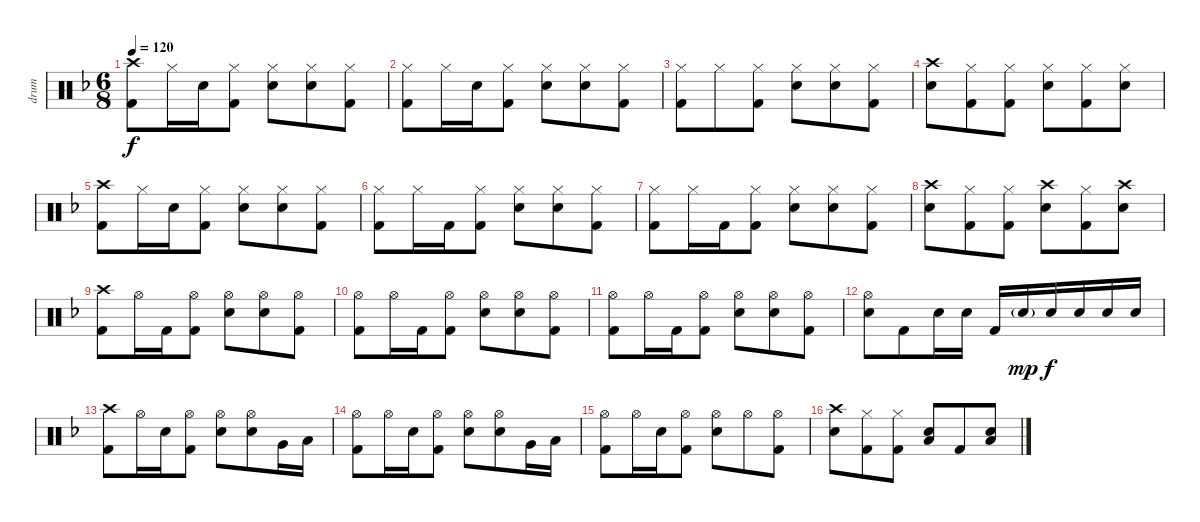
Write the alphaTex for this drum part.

\track ("drum" "drum") {instrument percussion}
\staff {score}
\articulation defaults
\ts (6 8)
\tempo 120
\clef neutral
\ks f
("Crash high (hit)" "Kick (hit) 2").8{dy f} "Hi-Hat (closed)".16 "Snare (hit) 2".16 ("Hi-Hat (closed)" "Kick (hit) 2").8 ("Hi-Hat (closed)" "Snare (hit) 2").8 ("Hi-Hat (closed)" "Snare (hit) 2").8 ("Hi-Hat (closed)" "Kick (hit) 2").8 |
("Hi-Hat (closed)" "Kick (hit) 2").8 "Hi-Hat (closed)".16 "Snare (hit) 2".16 ("Hi-Hat (closed)" "Kick (hit) 2").8 ("Hi-Hat (closed)" "Snare (hit) 2").8 ("Hi-Hat (closed)" "Snare (hit) 2").8 ("Hi-Hat (closed)" "Kick (hit) 2").8 |
("Hi-Hat (closed)" "Kick (hit) 2").8 "Hi-Hat (closed)".8 ("Hi-Hat (closed)" "Kick (hit) 2").8 ("Hi-Hat (closed)" "Snare (hit) 2").8 ("Hi-Hat (closed)" "Snare (hit) 2").8 ("Hi-Hat (closed)" "Kick (hit) 2").8 |
("Crash high (hit)" "Snare (hit) 2").8 ("Hi-Hat (closed)" "Kick (hit) 2").8 ("Hi-Hat (closed)" "Kick (hit) 2").8 ("Hi-Hat (closed)" "Snare (hit) 2").8 ("Hi-Hat (closed)" "Kick (hit) 2").8 ("Hi-Hat (closed)" "Snare (hit) 2").8 |
("Crash high (hit)" "Kick (hit) 2").8 "Hi-Hat (closed)".16 "Snare (hit) 2".16 ("Hi-Hat (closed)" "Kick (hit) 2").8 ("Hi-Hat (closed)" "Snare (hit) 2").8 ("Hi-Hat (closed)" "Snare (hit) 2").8 ("Hi-Hat (closed)" "Kick (hit) 2").8 |
("Hi-Hat (closed)" "Kick (hit) 2").8 "Hi-Hat (closed)".16 "Kick (hit) 2".16 ("Hi-Hat (closed)" "Kick (hit) 2").8 ("Hi-Hat (closed)" "Snare (hit) 2").8 ("Hi-Hat (closed)" "Snare (hit) 2").8 ("Hi-Hat (closed)" "Kick (hit) 2").8 |
("Hi-Hat (closed)" "Kick (hit) 2").8 "Hi-Hat (closed)".16 "Kick (hit) 2".16 ("Hi-Hat (closed)" "Kick (hit) 2").8 ("Hi-Hat (closed)" "Snare (hit) 2").8 ("Hi-Hat (closed)" "Snare (hit) 2").8 ("Hi-Hat (closed)" "Kick (hit) 2").8 |
("Crash high (hit)" "Snare (hit) 2").8 ("Hi-Hat (closed)" "Kick (hit) 2").8 ("Hi-Hat (closed)" "Kick (hit) 2").8 ("Crash high (hit)" "Snare (hit) 2").8 ("Hi-Hat (closed)" "Kick (hit) 2").8 ("Crash high (hit)" "Snare (hit) 2").8 |
("Crash high (hit)" "Kick (hit) 2").8 "Hi-Hat (open)".16 "Kick (hit) 2".16 ("Hi-Hat (open)" "Kick (hit) 2").8 ("Hi-Hat (open)" "Snare (hit) 2").8 ("Hi-Hat (open)" "Snare (hit) 2").8 ("Hi-Hat (open)" "Kick (hit) 2").8 |
("Hi-Hat (open)" "Kick (hit) 2").8 "Hi-Hat (open)".16 "Kick (hit) 2".16 ("Hi-Hat (open)" "Kick (hit) 2").8 ("Hi-Hat (open)" "Snare (hit) 2").8 ("Hi-Hat (open)" "Snare (hit) 2").8 ("Hi-Hat (open)" "Kick (hit) 2").8 |
("Hi-Hat (open)" "Kick (hit) 2").8 "Hi-Hat (open)".16 "Kick (hit) 2".16 ("Hi-Hat (open)" "Kick (hit) 2").8 ("Hi-Hat (open)" "Snare (hit) 2").8 ("Hi-Hat (open)" "Snare (hit) 2").8 ("Hi-Hat (open)" "Kick (hit) 2").8 |
("Hi-Hat (open)" "Snare (hit) 2").8 "Kick (hit) 2".8 "Snare (hit) 2".16 "Snare (hit) 2".16 "Kick (hit) 2".16 "Snare (hit) 2"{g}.16{dy mp} "Snare (hit) 2".16{dy f} "Snare (hit) 2".16 "Snare (hit) 2".16 "Snare (hit) 2".16 |
("Crash high (hit)" "Kick (hit) 2").8 "Hi-Hat (open)".16 "Snare (hit) 2".16 ("Hi-Hat (open)" "Kick (hit) 2").8 ("Hi-Hat (open)" "Snare (hit) 2").8 ("Hi-Hat (open)" "Snare (hit) 2").8 "Very Low Tom (hit)".16 "Low Floor Tom (hit)".16 |
("Hi-Hat (open)" "Kick (hit) 2").8 "Hi-Hat (open)".16 "Snare (hit) 2".16 ("Hi-Hat (open)" "Kick (hit) 2").8 ("Hi-Hat (open)" "Snare (hit) 2").8 ("Hi-Hat (open)" "Snare (hit) 2").8 "Very Low Tom (hit)".16 "Low Floor Tom (hit)".16 |
("Hi-Hat (open)" "Kick (hit) 2").8 "Hi-Hat (open)".16 "Snare (hit) 2".16 ("Hi-Hat (open)" "Kick (hit) 2").8 ("Hi-Hat (open)" "Snare (hit) 2").8 "Hi-Hat (open)".8 ("Hi-Hat (open)" "Kick (hit) 2").8 |
("Crash high (hit)" "Snare (hit) 2").8 ("Hi-Hat (closed)" "Kick (hit) 2").8 ("Hi-Hat (closed)" "Kick (hit) 2").8 ("Snare (hit) 2" "Low Tom (hit)").8 "Kick (hit) 2".8 ("Snare (hit) 2" "Low Tom (hit)").8
